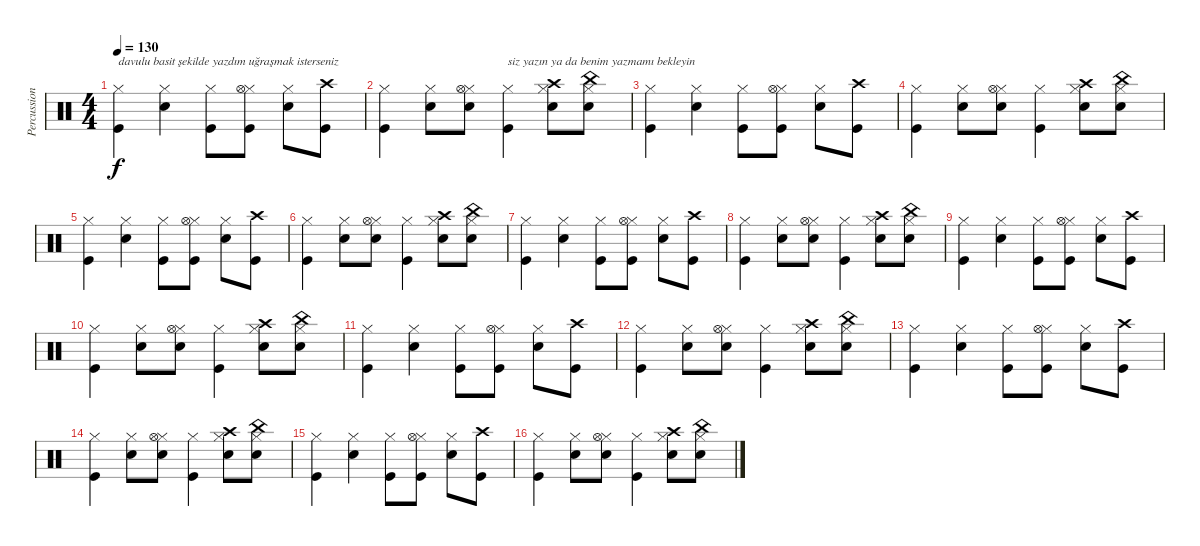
\track ("Percussion" "Percussion") {instrument percussion}
\staff {score}
\articulation defaults
\ts (4 4)
\tempo 130
\clef neutral
\ks c
("Kick (hit)" "Hi-Hat (closed)").4{txt "davulu basit şekilde yazdım uğraşmak isterseniz " dy f} ("Snare (hit) 2" "Hi-Hat (closed)").4 ("Kick (hit)" "Hi-Hat (closed)").8 ("Kick (hit)" "Hi-Hat (closed)" "Hi-Hat (open)").8 ("Snare (hit) 2" "Hi-Hat (closed)").8 ("Kick (hit)" "Crash high (hit)").8 |
("Kick (hit)" "Hi-Hat (closed)").4 ("Snare (hit) 2" "Hi-Hat (closed)").8 ("Snare (hit) 2" "Hi-Hat (closed)" "Hi-Hat (open)").8 ("Kick (hit)" "Hi-Hat (closed)").4{txt "siz yazın ya da benim yazmamı bekleyin"} ("Snare (hit) 2" "Hi-Hat (closed)" "Crash high (hit)").8 ("Snare (hit) 2" "Hi-Hat (closed)" "China (hit)").8 |
("Kick (hit)" "Hi-Hat (closed)").4 ("Snare (hit) 2" "Hi-Hat (closed)").4 ("Kick (hit)" "Hi-Hat (closed)").8 ("Kick (hit)" "Hi-Hat (closed)" "Hi-Hat (open)").8 ("Snare (hit) 2" "Hi-Hat (closed)").8 ("Kick (hit)" "Crash high (hit)").8 |
("Kick (hit)" "Hi-Hat (closed)").4 ("Snare (hit) 2" "Hi-Hat (closed)").8 ("Snare (hit) 2" "Hi-Hat (closed)" "Hi-Hat (open)").8 ("Kick (hit)" "Hi-Hat (closed)").4 ("Snare (hit) 2" "Hi-Hat (closed)" "Crash high (hit)").8 ("Snare (hit) 2" "Hi-Hat (closed)" "China (hit)").8 |
("Kick (hit)" "Hi-Hat (closed)").4 ("Snare (hit) 2" "Hi-Hat (closed)").4 ("Kick (hit)" "Hi-Hat (closed)").8 ("Kick (hit)" "Hi-Hat (closed)" "Hi-Hat (open)").8 ("Snare (hit) 2" "Hi-Hat (closed)").8 ("Kick (hit)" "Crash high (hit)").8 |
("Kick (hit)" "Hi-Hat (closed)").4 ("Snare (hit) 2" "Hi-Hat (closed)").8 ("Snare (hit) 2" "Hi-Hat (closed)" "Hi-Hat (open)").8 ("Kick (hit)" "Hi-Hat (closed)").4 ("Snare (hit) 2" "Hi-Hat (closed)" "Crash high (hit)").8 ("Snare (hit) 2" "Hi-Hat (closed)" "China (hit)").8 |
("Kick (hit)" "Hi-Hat (closed)").4 ("Snare (hit) 2" "Hi-Hat (closed)").4 ("Kick (hit)" "Hi-Hat (closed)").8 ("Kick (hit)" "Hi-Hat (closed)" "Hi-Hat (open)").8 ("Snare (hit) 2" "Hi-Hat (closed)").8 ("Kick (hit)" "Crash high (hit)").8 |
("Kick (hit)" "Hi-Hat (closed)").4 ("Snare (hit) 2" "Hi-Hat (closed)").8 ("Snare (hit) 2" "Hi-Hat (closed)" "Hi-Hat (open)").8 ("Kick (hit)" "Hi-Hat (closed)").4 ("Snare (hit) 2" "Hi-Hat (closed)" "Crash high (hit)").8 ("Snare (hit) 2" "Hi-Hat (closed)" "China (hit)").8 |
("Kick (hit)" "Hi-Hat (closed)").4 ("Snare (hit) 2" "Hi-Hat (closed)").4 ("Kick (hit)" "Hi-Hat (closed)").8 ("Kick (hit)" "Hi-Hat (closed)" "Hi-Hat (open)").8 ("Snare (hit) 2" "Hi-Hat (closed)").8 ("Kick (hit)" "Crash high (hit)").8 |
("Kick (hit)" "Hi-Hat (closed)").4 ("Snare (hit) 2" "Hi-Hat (closed)").8 ("Snare (hit) 2" "Hi-Hat (closed)" "Hi-Hat (open)").8 ("Kick (hit)" "Hi-Hat (closed)").4 ("Snare (hit) 2" "Hi-Hat (closed)" "Crash high (hit)").8 ("Snare (hit) 2" "Hi-Hat (closed)" "China (hit)").8 |
("Kick (hit)" "Hi-Hat (closed)").4 ("Snare (hit) 2" "Hi-Hat (closed)").4 ("Kick (hit)" "Hi-Hat (closed)").8 ("Kick (hit)" "Hi-Hat (closed)" "Hi-Hat (open)").8 ("Snare (hit) 2" "Hi-Hat (closed)").8 ("Kick (hit)" "Crash high (hit)").8 |
("Kick (hit)" "Hi-Hat (closed)").4 ("Snare (hit) 2" "Hi-Hat (closed)").8 ("Snare (hit) 2" "Hi-Hat (closed)" "Hi-Hat (open)").8 ("Kick (hit)" "Hi-Hat (closed)").4 ("Snare (hit) 2" "Hi-Hat (closed)" "Crash high (hit)").8 ("Snare (hit) 2" "Hi-Hat (closed)" "China (hit)").8 |
("Kick (hit)" "Hi-Hat (closed)").4 ("Snare (hit) 2" "Hi-Hat (closed)").4 ("Kick (hit)" "Hi-Hat (closed)").8 ("Kick (hit)" "Hi-Hat (closed)" "Hi-Hat (open)").8 ("Snare (hit) 2" "Hi-Hat (closed)").8 ("Kick (hit)" "Crash high (hit)").8 |
("Kick (hit)" "Hi-Hat (closed)").4 ("Snare (hit) 2" "Hi-Hat (closed)").8 ("Snare (hit) 2" "Hi-Hat (closed)" "Hi-Hat (open)").8 ("Kick (hit)" "Hi-Hat (closed)").4 ("Snare (hit) 2" "Hi-Hat (closed)" "Crash high (hit)").8 ("Snare (hit) 2" "Hi-Hat (closed)" "China (hit)").8 |
("Kick (hit)" "Hi-Hat (closed)").4 ("Snare (hit) 2" "Hi-Hat (closed)").4 ("Kick (hit)" "Hi-Hat (closed)").8 ("Kick (hit)" "Hi-Hat (closed)" "Hi-Hat (open)").8 ("Snare (hit) 2" "Hi-Hat (closed)").8 ("Kick (hit)" "Crash high (hit)").8 |
("Kick (hit)" "Hi-Hat (closed)").4 ("Snare (hit) 2" "Hi-Hat (closed)").8 ("Snare (hit) 2" "Hi-Hat (closed)" "Hi-Hat (open)").8 ("Kick (hit)" "Hi-Hat (closed)").4 ("Snare (hit) 2" "Hi-Hat (closed)" "Crash high (hit)").8 ("Snare (hit) 2" "Hi-Hat (closed)" "China (hit)").8
